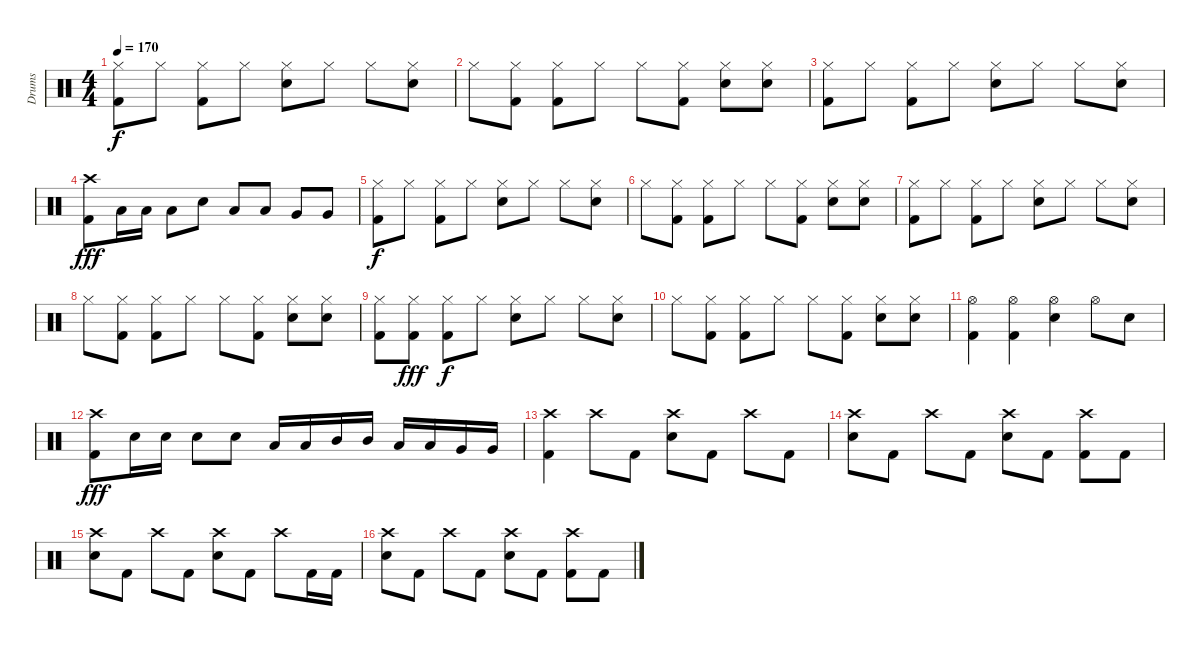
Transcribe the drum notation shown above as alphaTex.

\track ("Drums" "Drums") {instrument percussion}
\staff {score}
\articulation defaults
\ts (4 4)
\tempo 170
\clef neutral
\ks c
("Hi-Hat (closed)" "Kick (hit) 2").8{dy f} "Hi-Hat (closed)".8 ("Hi-Hat (closed)" "Kick (hit) 2").8 "Hi-Hat (closed)".8 ("Hi-Hat (closed)" "Electric Snare (hit)").8 "Hi-Hat (closed)".8 "Hi-Hat (closed)".8 ("Hi-Hat (closed)" "Electric Snare (hit)").8 |
"Hi-Hat (closed)".8 ("Hi-Hat (closed)" "Kick (hit) 2").8 ("Hi-Hat (closed)" "Kick (hit) 2").8 "Hi-Hat (closed)".8 "Hi-Hat (closed)".8 ("Hi-Hat (closed)" "Kick (hit) 2").8 ("Hi-Hat (closed)" "Electric Snare (hit)").8 ("Hi-Hat (closed)" "Electric Snare (hit)").8 |
("Hi-Hat (closed)" "Kick (hit) 2").8 "Hi-Hat (closed)".8 ("Hi-Hat (closed)" "Kick (hit) 2").8 "Hi-Hat (closed)".8 ("Hi-Hat (closed)" "Electric Snare (hit)").8 "Hi-Hat (closed)".8 "Hi-Hat (closed)".8 ("Hi-Hat (closed)" "Electric Snare (hit)").8 |
("Crash high (hit)" "Kick (hit) 2").8{dy fff} "Low Tom (hit)".16 "Low Tom (hit)".16 "Low Tom (hit)".8 "Electric Snare (hit)".8 "Low Tom (hit)".8 "Low Tom (hit)".8 "Very Low Tom (hit)".8 "Very Low Tom (hit)".8 |
("Hi-Hat (closed)" "Kick (hit) 2").8{dy f} "Hi-Hat (closed)".8 ("Hi-Hat (closed)" "Kick (hit) 2").8 "Hi-Hat (closed)".8 ("Hi-Hat (closed)" "Electric Snare (hit)").8 "Hi-Hat (closed)".8 "Hi-Hat (closed)".8 ("Hi-Hat (closed)" "Electric Snare (hit)").8 |
"Hi-Hat (closed)".8 ("Hi-Hat (closed)" "Kick (hit) 2").8 ("Hi-Hat (closed)" "Kick (hit) 2").8 "Hi-Hat (closed)".8 "Hi-Hat (closed)".8 ("Hi-Hat (closed)" "Kick (hit) 2").8 ("Hi-Hat (closed)" "Electric Snare (hit)").8 ("Hi-Hat (closed)" "Electric Snare (hit)").8 |
("Hi-Hat (closed)" "Kick (hit) 2").8 "Hi-Hat (closed)".8 ("Hi-Hat (closed)" "Kick (hit) 2").8 "Hi-Hat (closed)".8 ("Hi-Hat (closed)" "Electric Snare (hit)").8 "Hi-Hat (closed)".8 "Hi-Hat (closed)".8 ("Hi-Hat (closed)" "Electric Snare (hit)").8 |
"Hi-Hat (closed)".8 ("Hi-Hat (closed)" "Kick (hit) 2").8 ("Hi-Hat (closed)" "Kick (hit) 2").8 "Hi-Hat (closed)".8 "Hi-Hat (closed)".8 ("Hi-Hat (closed)" "Kick (hit) 2").8 ("Hi-Hat (closed)" "Electric Snare (hit)").8 ("Hi-Hat (closed)" "Electric Snare (hit)").8 |
("Hi-Hat (closed)" "Kick (hit) 2").8 ("Hi-Hat (closed)" "Kick (hit) 2").8{dy fff} ("Hi-Hat (closed)" "Kick (hit) 2").8{dy f} "Hi-Hat (closed)".8 ("Hi-Hat (closed)" "Electric Snare (hit)").8 "Hi-Hat (closed)".8 "Hi-Hat (closed)".8 ("Hi-Hat (closed)" "Electric Snare (hit)").8 |
"Hi-Hat (closed)".8 ("Hi-Hat (closed)" "Kick (hit) 2").8 ("Hi-Hat (closed)" "Kick (hit) 2").8 "Hi-Hat (closed)".8 "Hi-Hat (closed)".8 ("Hi-Hat (closed)" "Kick (hit) 2").8 ("Hi-Hat (closed)" "Electric Snare (hit)").8 ("Hi-Hat (closed)" "Electric Snare (hit)").8 |
("Hi-Hat (open)" "Kick (hit) 2").4 ("Hi-Hat (open)" "Kick (hit) 2").4 ("Hi-Hat (open)" "Electric Snare (hit)").4 "Hi-Hat (open)".8 "Electric Snare (hit)".8 |
("Crash high (hit)" "Kick (hit) 2").8{dy fff} "Electric Snare (hit)".16 "Electric Snare (hit)".16 "Electric Snare (hit)".8 "Electric Snare (hit)".8 "Low Tom (hit)".16 "Low Tom (hit)".16 "Mid Tom (hit)".16 "Mid Tom (hit)".16 "Low Tom (hit)".16 "Low Tom (hit)".16 "Very Low Tom (hit)".16 "Very Low Tom (hit)".16 |
("Crash high (hit)" "Kick (hit) 2").4 "Crash high (hit)".8 "Kick (hit) 2".8 ("Crash high (hit)" "Electric Snare (hit)").8 "Kick (hit) 2".8 "Crash high (hit)".8 "Kick (hit) 2".8 |
("Crash high (hit)" "Electric Snare (hit)").8 "Kick (hit) 2".8 "Crash high (hit)".8 "Kick (hit) 2".8 ("Crash high (hit)" "Electric Snare (hit)").8 "Kick (hit) 2".8 ("Crash high (hit)" "Kick (hit) 2").8 "Kick (hit) 2".8 |
("Crash high (hit)" "Electric Snare (hit)").8 "Kick (hit) 2".8 "Crash high (hit)".8 "Kick (hit) 2".8 ("Crash high (hit)" "Electric Snare (hit)").8 "Kick (hit) 2".8 "Crash high (hit)".8 "Kick (hit) 2".16 "Kick (hit) 2".16 |
("Crash high (hit)" "Electric Snare (hit)").8 "Kick (hit) 2".8 "Crash high (hit)".8 "Kick (hit) 2".8 ("Crash high (hit)" "Electric Snare (hit)").8 "Kick (hit) 2".8 ("Crash high (hit)" "Kick (hit) 2").8 "Kick (hit) 2".8
